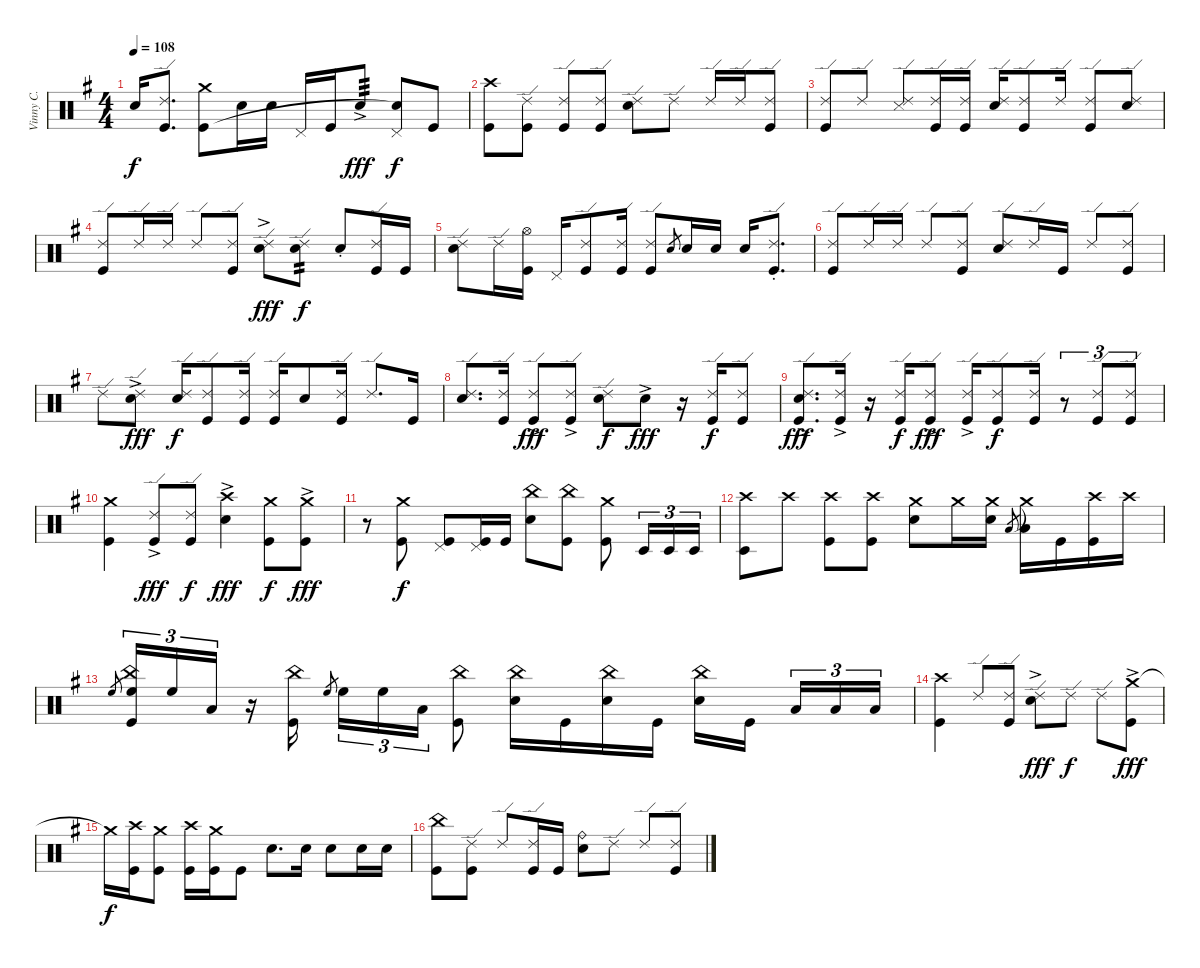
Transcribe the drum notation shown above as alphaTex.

\track ("Vinny C." "Vinny C.") {instrument percussion}
\staff {score}
\articulation defaults
\ts (4 4)
\tempo 108
\clef neutral
\ks g "Electric Snare (hit)".16{dy f}
("Ride (edge) 2" "Kick (hit)").8{d} ("Crash medium (hit)" "Kick (hit)").8 "Electric Snare (hit)".16 "Electric Snare (hit)".16 "Pedal Hi-Hat (hit)".16 "Kick (hit)".16 "Electric Snare (hit)"{ac}.8{tp 3 dy fff} ("Pedal Hi-Hat (hit)" "Electric Snare (hit)"{t}).8{dy f} "Kick (hit)".8 |
("Crash high (hit)" "Kick (hit)").8 ("Ride (edge) 2" "Kick (hit)").8 ("Ride (edge) 2" "Kick (hit)").8 ("Ride (edge) 2" "Kick (hit)").8 ("Ride (edge) 2" "Electric Snare (hit)").8 "Ride (edge) 2".8 "Ride (edge) 2".16 "Ride (edge) 2".16 ("Ride (edge) 2" "Kick (hit)").8 |
("Ride (edge) 2" "Kick (hit)").8 "Ride (edge) 2".8 ("Ride (edge) 2" "Snare (side stick) 3").8 ("Ride (edge) 2" "Kick (hit)").16 ("Ride (edge) 2" "Kick (hit)").16 ("Ride (edge) 2" "Electric Snare (hit)").16 ("Ride (edge) 2" "Kick (hit)").8 "Ride (edge) 2".16 ("Ride (edge) 2" "Kick (hit)").8 ("Ride (edge) 2" "Electric Snare (hit)").8 |
("Ride (edge) 2" "Kick (hit)").8 "Ride (edge) 2".16 "Ride (edge) 2".16 "Ride (edge) 2".8 ("Ride (edge) 2" "Kick (hit)").8 ("Ride (edge) 2" "Electric Snare (hit)"{ac}).8{dy fff} ("Ride (edge) 2" "Electric Snare (hit)").8{tp 2 dy f} "Electric Snare (hit)"{st}.8 ("Ride (edge) 2" "Kick (hit)").16 "Kick (hit)".16 |
("Ride (edge) 2" "Electric Snare (hit)").8 "Ride (edge) 2".16 ("Hi-Hat (open)" "Kick (hit)").16 "Pedal Hi-Hat (hit)".16 ("Ride (edge) 2" "Kick (hit)").8 ("Ride (edge) 2" "Kick (hit)").16 ("Ride (edge) 2" "Kick (hit)").8 "Electric Snare (hit)".8{gr} "Electric Snare (hit)".16 "Electric Snare (hit)".16 "Electric Snare (hit)".16 ("Ride (edge) 2"{st} "Kick (hit)").8{d} |
("Ride (edge) 2" "Kick (hit)").8 "Ride (edge) 2".16 "Ride (edge) 2".16 "Ride (edge) 2".8 ("Ride (edge) 2" "Kick (hit)").8 ("Ride (edge) 2" "Electric Snare (hit)").8 "Ride (edge) 2".16 "Kick (hit)".16 "Ride (edge) 2".8 ("Ride (edge) 2" "Kick (hit)").8 |
"Ride (edge) 2".8 ("Ride (edge) 2"{ac} "Electric Snare (hit)").8{dy fff} ("Ride (edge) 2" "Electric Snare (hit)").16{dy f} ("Ride (edge) 2" "Kick (hit)").8 ("Ride (edge) 2" "Kick (hit)").16 ("Ride (edge) 2" "Kick (hit)").16 "Electric Snare (hit)"{tr (40 32)}.8 ("Ride (edge) 2" "Kick (hit)").16 "Ride (edge) 2".8{d} "Kick (hit)".16 |
("Ride (edge) 2" "Electric Snare (hit)"{tr (40 32)}).8{d} ("Ride (edge) 2" "Kick (hit)").16 ("Ride (edge) 2"{ac} "Kick (hit)").8{dy fff} ("Ride (edge) 2"{ac} "Kick (hit)").8 ("Ride (edge) 2" "Electric Snare (hit)").8{dy f} "Electric Snare (hit)"{tr (40 32) ac}.8{dy fff} r.16 ("Ride (edge) 2" "Kick (hit)").16{dy f} ("Ride (edge) 2" "Kick (hit)").8 |
("Ride (edge) 2"{ac} "Electric Snare (hit)"{tr (40 32)} "Kick (hit)").8{d dy fff} ("Ride (edge) 2"{ac} "Kick (hit)").16 r.16 ("Ride (edge) 2" "Kick (hit)").16{dy f} ("Ride (edge) 2"{ac} "Kick (hit)").8{dy fff} ("Ride (edge) 2"{ac} "Kick (hit)").16 ("Ride (edge) 2" "Kick (hit)").8{dy f} ("Ride (edge) 2" "Kick (hit)").16 r.8{tu (3 2)} ("Ride (edge) 2" "Kick (hit)").8{tu (3 2)} ("Ride (edge) 2" "Kick (hit)").8{tu (3 2)} |
("Crash medium (hit)" "Kick (hit)").4 ("Ride (edge) 2"{ac} "Kick (hit)").8{dy fff} ("Ride (edge) 2" "Kick (hit)").8{dy f} ("Crash high (hit)"{ac} "Electric Snare (hit)").4{dy fff} ("Crash medium (hit)" "Kick (hit)").8{dy f} ("Crash medium (hit)"{ac} "Kick (hit)").8{dy fff} |
r.8 ("Crash medium (hit)" "Kick (hit)").8{dy f} ("Pedal Hi-Hat (hit)" "Kick (hit)").8 ("Pedal Hi-Hat (hit)" "Kick (hit)").16 "Kick (hit)".16 ("China (hit)" "Electric Snare (hit)").8 ("China (hit)" "Kick (hit)").8 ("Crash medium (hit)" "Kick (hit)").8 "Timbale low (hit)".16{tu (3 2)} "Timbale low (hit)".16{tu (3 2)} "Timbale low (hit)".16{tu (3 2)} |
("Crash high (hit)" "Timbale low (hit)").8 "Crash high (hit)".8 ("Crash high (hit)" "Kick (hit)").8 ("Crash high (hit)" "Kick (hit)").8 ("Crash medium (hit)" "Electric Snare (hit)").8 "Crash medium (hit)".16 ("Crash medium (hit)" "Electric Snare (hit)").16 "Low Tom (hit)".8{gr} ("Crash medium (hit)"{t} "Low Tom (hit)"{tr (45 32)}).16 "Kick (hit)".16 ("Crash high (hit)" "Kick (hit)").16 "Crash high (hit)".16 |
"High Floor Tom (hit)".8{gr} ("China (hit)" "High Floor Tom (hit)" "Kick (hit)").16{tu (3 2)} "High Floor Tom (hit)".16{tu (3 2)} "Low Tom (hit)".16{tu (3 2)} r.16 ("China (hit)" "Kick (hit)").16 "High Floor Tom (hit)".8{gr} "High Floor Tom (hit)".16{tu (3 2)} "High Floor Tom (hit)".16{tu (3 2)} "Low Tom (hit)".16{tu (3 2)} ("China (hit)" "Kick (hit)").8 ("China (hit)" "Electric Snare (hit)").16 "Kick (hit)".16 ("China (hit)" "Electric Snare (hit)").16 "Kick (hit)".16 ("China (hit)" "Electric Snare (hit)").16 "Kick (hit)".16 "Low Tom (hit)".16{tu (3 2)} "Low Tom (hit)".16{tu (3 2)} "Low Tom (hit)".16{tu (3 2)} |
("Crash high (hit)" "Kick (hit)").4 "Ride (edge) 2".8 ("Ride (edge) 2" "Kick (hit)").8 ("Ride (edge) 2" "Electric Snare (hit)"{ac}).8{dy fff} "Ride (edge) 2".8{dy f} "Ride (edge) 2".8 ("Crash medium (hit)"{ac} "Kick (hit)").8{dy fff} |
"Crash medium (hit)"{t}.16{dy f} ("Crash high (hit)" "Kick (hit)").16 ("Crash medium (hit)" "Kick (hit)").8 ("Crash high (hit)" "Kick (hit)").16 ("Crash medium (hit)" "Kick (hit)").16 "Kick (hit)".8 "Electric Snare (hit)".8{d} "Electric Snare (hit)".16 "Electric Snare (hit)".8 "Electric Snare (hit)".16 "Electric Snare (hit)".16 |
("China (hit)" "Kick (hit)").8 ("Ride (edge) 2" "Kick (hit)").8 "Ride (edge) 2".8 ("Ride (edge) 2" "Kick (hit)").16 "Kick (hit)".16 ("Ride (bell)" "Electric Snare (hit)").8 "Ride (edge) 2".8 "Ride (edge) 2".8 ("Ride (edge) 2" "Kick (hit)").8
